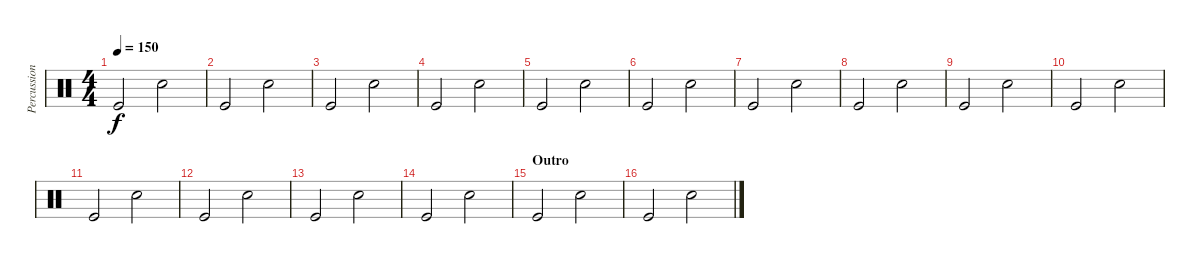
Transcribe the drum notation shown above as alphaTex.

\track ("Percussions" "Percussion") {instrument percussion}
\staff {score}
\articulation defaults
\ts (4 4)
\tempo 150
\clef neutral
\ks c "Kick (hit)".2{dy f} "Electric Snare (hit)".2
|
"Kick (hit)".2 "Electric Snare (hit)".2 |
"Kick (hit)".2 "Electric Snare (hit)".2 |
"Kick (hit)".2 "Electric Snare (hit)".2 |
"Kick (hit)".2 "Electric Snare (hit)".2 |
"Kick (hit)".2 "Electric Snare (hit)".2 |
"Kick (hit)".2 "Electric Snare (hit)".2 |
"Kick (hit)".2 "Electric Snare (hit)".2 |
"Kick (hit)".2 "Electric Snare (hit)".2 |
"Kick (hit)".2 "Electric Snare (hit)".2 |
"Kick (hit)".2 "Electric Snare (hit)".2 |
"Kick (hit)".2 "Electric Snare (hit)".2 |
"Kick (hit)".2 "Electric Snare (hit)".2 |
"Kick (hit)".2 "Electric Snare (hit)".2 |
\section ("" "Outro")
"Kick (hit)".2 "Electric Snare (hit)".2 |
"Kick (hit)".2 "Electric Snare (hit)".2
